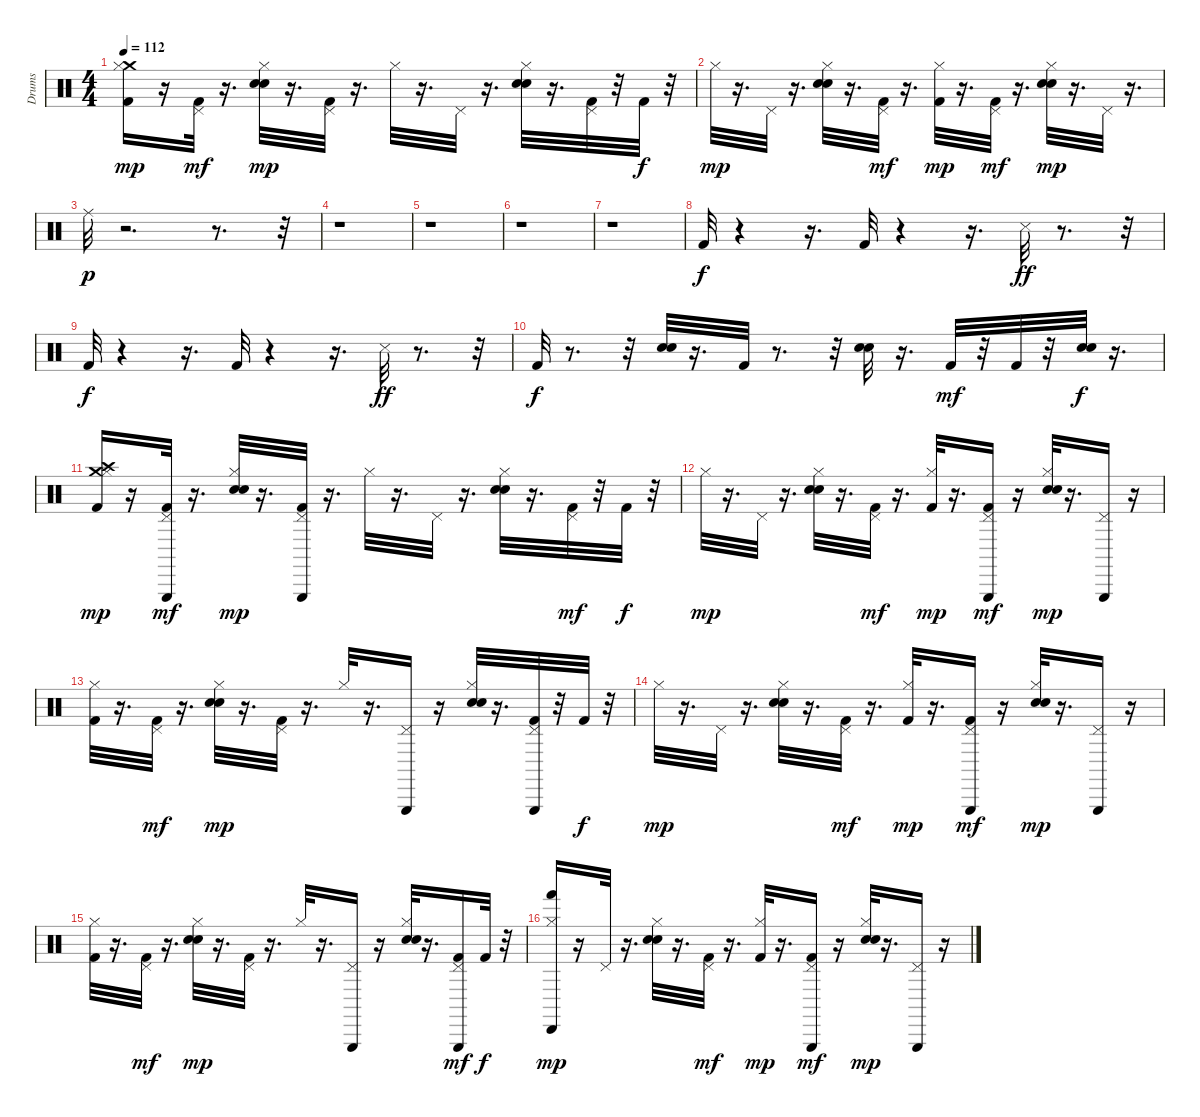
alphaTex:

\track ("Drums" "Drums") {instrument percussion}
\staff {score}
\articulation defaults
\ts (4 4)
\tempo 112
\clef neutral
\ks c
("Crash medium (hit)" "Hi-Hat (closed)" "Kick (hit) 2").16{dy mp} r.16 ("Pedal Hi-Hat (hit)" "Kick (hit) 2").32{dy mf} r.16{d} ("Hi-Hat (closed)" "Electric Snare (hit)" "Hand Clap (hit)").32{dy mp} r.16{d} ("Pedal Hi-Hat (hit)" "Kick (hit) 2").32 r.16{d} "Hi-Hat (closed)".32 r.16{d} "Pedal Hi-Hat (hit)".32 r.16{d} ("Hi-Hat (closed)" "Electric Snare (hit)" "Hand Clap (hit)").32 r.16{d} ("Pedal Hi-Hat (hit)" "Kick (hit) 2").32 r.32 "Kick (hit) 2".32{dy f} r.32 |
"Hi-Hat (closed)".32{dy mp} r.16{d} "Pedal Hi-Hat (hit)".32 r.16{d} ("Hi-Hat (closed)" "Electric Snare (hit)" "Hand Clap (hit)").32 r.16{d} ("Pedal Hi-Hat (hit)" "Kick (hit) 2").32{dy mf} r.16{d} ("Hi-Hat (closed)" "Kick (hit) 2").32{dy mp} r.16{d} ("Pedal Hi-Hat (hit)" "Kick (hit) 2").32{dy mf} r.16{d} ("Hi-Hat (closed)" "Electric Snare (hit)" "Hand Clap (hit)").32{dy mp} r.16{d} "Pedal Hi-Hat (hit)".32 r.16{d} |
"Ride (middle)".32{dy p} r.2{d} r.8{d} r.32 |
r.1 |
r.1 |
r.1 |
r.1 |
"Kick (hit) 2".32{dy f} r.4 r.16{d} "Kick (hit) 2".32 r.4 r.16{d} "Snare (side stick) 3".32{dy ff} r.8{d} r.32 |
"Kick (hit) 2".32{dy f} r.4 r.16{d} "Kick (hit) 2".32 r.4 r.16{d} "Snare (side stick) 3".32{dy ff} r.8{d} r.32 |
"Kick (hit) 2".32{dy f} r.8{d} r.32 ("Electric Snare (hit)" "Hand Clap (hit)").32 r.16{d} "Kick (hit) 2".32 r.8{d} r.32 ("Hand Clap (hit)" "Electric Snare (hit)").32 r.16{d} "Kick (hit) 2".32{dy mf} r.32 "Kick (hit) 2".32 r.32 ("Hand Clap (hit)" "Electric Snare (hit)").32{dy f} r.16{d} |
("Crash medium (hit)" "Crash high (hit)" "Hi-Hat (closed)" "Kick (hit) 2").16{dy mp} r.16 ("Triangle (hit)" "Pedal Hi-Hat (hit)" "Kick (hit) 2").32{dy mf} r.16{d} ("Hi-Hat (closed)" "Electric Snare (hit)" "Hand Clap (hit)").32{dy mp} r.16{d} ("Triangle (hit)" "Pedal Hi-Hat (hit)" "Kick (hit) 2").32 r.16{d} "Hi-Hat (closed)".32 r.16{d} "Pedal Hi-Hat (hit)".32 r.16{d} ("Hi-Hat (closed)" "Electric Snare (hit)" "Hand Clap (hit)").32 r.16{d} ("Pedal Hi-Hat (hit)" "Kick (hit) 2").32{dy mf} r.32 "Kick (hit) 2".32{dy f} r.32 |
"Hi-Hat (closed)".32{dy mp} r.16{d} "Pedal Hi-Hat (hit)".32 r.16{d} ("Hi-Hat (closed)" "Electric Snare (hit)" "Hand Clap (hit)").32 r.16{d} ("Pedal Hi-Hat (hit)" "Kick (hit) 2").32{dy mf} r.16{d} ("Hi-Hat (closed)" "Kick (hit) 2").32{dy mp} r.16{d} ("Triangle (hit)" "Pedal Hi-Hat (hit)" "Kick (hit) 2").16{dy mf} r.16 ("Hi-Hat (closed)" "Electric Snare (hit)" "Hand Clap (hit)").32{dy mp} r.16{d} ("Triangle (hit)" "Pedal Hi-Hat (hit)").16 r.16 |
("Hi-Hat (closed)" "Kick (hit) 2").32 r.16{d} ("Pedal Hi-Hat (hit)" "Kick (hit) 2").32{dy mf} r.16{d} ("Hi-Hat (closed)" "Electric Snare (hit)" "Hand Clap (hit)").32{dy mp} r.16{d} ("Pedal Hi-Hat (hit)" "Kick (hit) 2").32 r.16{d} "Hi-Hat (closed)".32 r.16{d} ("Triangle (hit)" "Pedal Hi-Hat (hit)").16 r.16 ("Hi-Hat (closed)" "Electric Snare (hit)" "Hand Clap (hit)").32 r.16{d} ("Triangle (hit)" "Pedal Hi-Hat (hit)" "Kick (hit) 2").32 r.32 "Kick (hit) 2".32{dy f} r.32 |
"Hi-Hat (closed)".32{dy mp} r.16{d} "Pedal Hi-Hat (hit)".32 r.16{d} ("Hi-Hat (closed)" "Electric Snare (hit)" "Hand Clap (hit)").32 r.16{d} ("Pedal Hi-Hat (hit)" "Kick (hit) 2").32{dy mf} r.16{d} ("Hi-Hat (closed)" "Kick (hit) 2").32{dy mp} r.16{d} ("Triangle (hit)" "Pedal Hi-Hat (hit)" "Kick (hit) 2").16{dy mf} r.16 ("Hi-Hat (closed)" "Electric Snare (hit)" "Hand Clap (hit)").32{dy mp} r.16{d} ("Triangle (hit)" "Pedal Hi-Hat (hit)").16 r.16 |
("Hi-Hat (closed)" "Kick (hit) 2").32 r.16{d} ("Pedal Hi-Hat (hit)" "Kick (hit) 2").32{dy mf} r.16{d} ("Hi-Hat (closed)" "Electric Snare (hit)" "Hand Clap (hit)").32{dy mp} r.16{d} ("Pedal Hi-Hat (hit)" "Kick (hit) 2").32 r.16{d} "Hi-Hat (closed)".32 r.16{d} ("Triangle (hit)" "Pedal Hi-Hat (hit)").16 r.16 ("Hi-Hat (closed)" "Electric Snare (hit)" "Hand Clap (hit)").32 r.16{d} ("Triangle (hit)" "Pedal Hi-Hat (hit)" "Kick (hit) 2").16{dy mf} "Kick (hit) 2".32{dy f} r.32 |
("Hand (hit)" "Cabasa (hit)" "Hi-Hat (closed)").16{dy mp} r.16 "Pedal Hi-Hat (hit)".32 r.16{d} ("Hi-Hat (closed)" "Electric Snare (hit)" "Hand Clap (hit)").32 r.16{d} ("Pedal Hi-Hat (hit)" "Kick (hit) 2").32{dy mf} r.16{d} ("Hi-Hat (closed)" "Kick (hit) 2").32{dy mp} r.16{d} ("Triangle (hit)" "Pedal Hi-Hat (hit)" "Kick (hit) 2").16{dy mf} r.16 ("Hi-Hat (closed)" "Electric Snare (hit)" "Hand Clap (hit)").32{dy mp} r.16{d} ("Triangle (hit)" "Pedal Hi-Hat (hit)").16 r.16
